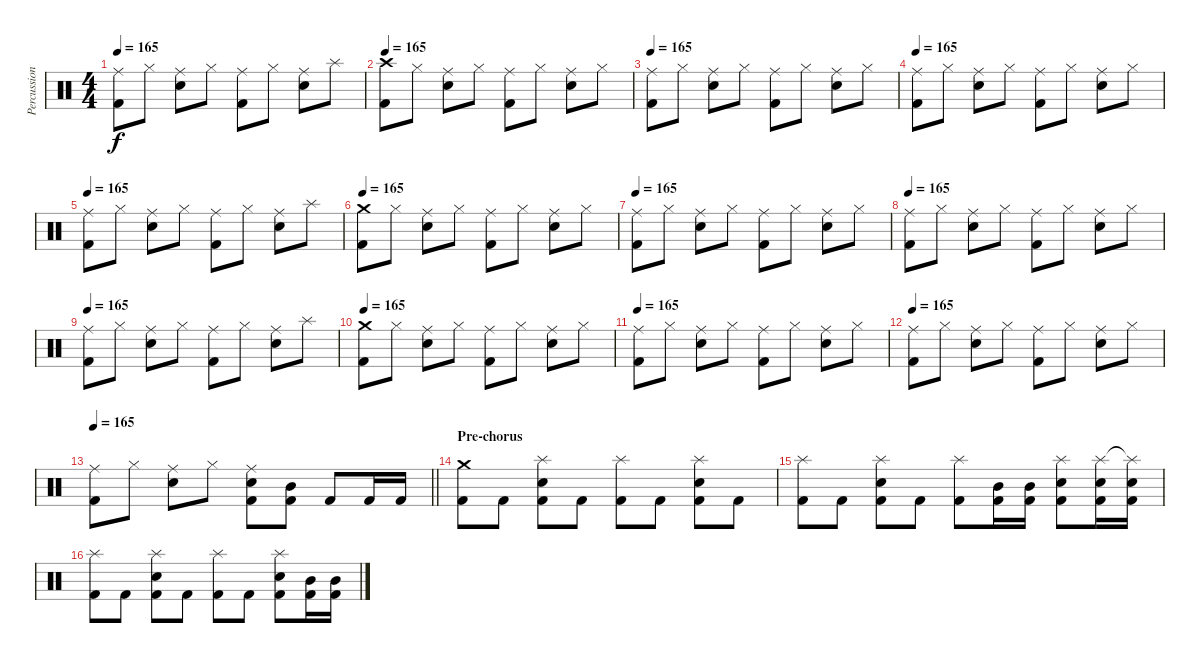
\track ("Percussion" "Percussion") {instrument percussion}
\staff {score}
\articulation defaults
\ts (4 4)
\tempo 165
\clef neutral
\ks c
("Ride (middle)" "Kick (hit) 2").8{dy f} "Hi-Hat (closed)".8 ("Ride (middle)" "Electric Snare (hit)").8 "Hi-Hat (closed)".8 ("Ride (middle)" "Kick (hit) 2").8 "Hi-Hat (closed)".8 ("Ride (middle)" "Electric Snare (hit)").8 "Splash (hit)".8 |
\tempo 165
("Crash high (hit)" "Kick (hit) 2").8 "Hi-Hat (closed)".8 ("Ride (middle)" "Electric Snare (hit)").8 "Hi-Hat (closed)".8 ("Ride (middle)" "Kick (hit) 2").8 "Hi-Hat (closed)".8 ("Ride (middle)" "Electric Snare (hit)").8 "Hi-Hat (closed)".8 |
\tempo 165
("Ride (middle)" "Kick (hit) 2").8 "Hi-Hat (closed)".8 ("Ride (middle)" "Electric Snare (hit)").8 "Hi-Hat (closed)".8 ("Ride (middle)" "Kick (hit) 2").8 "Hi-Hat (closed)".8 ("Ride (middle)" "Electric Snare (hit)").8 "Hi-Hat (closed)".8 |
\tempo 165
("Ride (middle)" "Kick (hit) 2").8 "Hi-Hat (closed)".8 ("Ride (middle)" "Electric Snare (hit)").8 "Hi-Hat (closed)".8 ("Ride (middle)" "Kick (hit) 2").8 "Hi-Hat (closed)".8 ("Ride (middle)" "Electric Snare (hit)").8 "Hi-Hat (closed)".8 |
\tempo 165
("Ride (middle)" "Kick (hit) 2").8 "Hi-Hat (closed)".8 ("Ride (middle)" "Electric Snare (hit)").8 "Hi-Hat (closed)".8 ("Ride (middle)" "Kick (hit) 2").8 "Hi-Hat (closed)".8 ("Ride (middle)" "Electric Snare (hit)").8 "Splash (hit)".8 |
\tempo 165
("Crash medium (hit)" "Kick (hit) 2").8 "Hi-Hat (closed)".8 ("Ride (middle)" "Electric Snare (hit)").8 "Hi-Hat (closed)".8 ("Ride (middle)" "Kick (hit) 2").8 "Hi-Hat (closed)".8 ("Ride (middle)" "Electric Snare (hit)").8 "Hi-Hat (closed)".8 |
\tempo 165
("Ride (middle)" "Kick (hit) 2").8 "Hi-Hat (closed)".8 ("Ride (middle)" "Electric Snare (hit)").8 "Hi-Hat (closed)".8 ("Ride (middle)" "Kick (hit) 2").8 "Hi-Hat (closed)".8 ("Ride (middle)" "Electric Snare (hit)").8 "Hi-Hat (closed)".8 |
\tempo 165
("Ride (middle)" "Kick (hit) 2").8 "Hi-Hat (closed)".8 ("Ride (middle)" "Electric Snare (hit)").8 "Hi-Hat (closed)".8 ("Ride (middle)" "Kick (hit) 2").8 "Hi-Hat (closed)".8 ("Ride (middle)" "Electric Snare (hit)").8 "Hi-Hat (closed)".8 |
\tempo 165
("Ride (middle)" "Kick (hit) 2").8 "Hi-Hat (closed)".8 ("Ride (middle)" "Electric Snare (hit)").8 "Hi-Hat (closed)".8 ("Ride (middle)" "Kick (hit) 2").8 "Hi-Hat (closed)".8 ("Ride (middle)" "Electric Snare (hit)").8 "Splash (hit)".8 |
\tempo 165
("Crash medium (hit)" "Kick (hit) 2").8 "Hi-Hat (closed)".8 ("Ride (middle)" "Electric Snare (hit)").8 "Hi-Hat (closed)".8 ("Ride (middle)" "Kick (hit) 2").8 "Hi-Hat (closed)".8 ("Ride (middle)" "Electric Snare (hit)").8 "Hi-Hat (closed)".8 |
\tempo 165
("Ride (middle)" "Kick (hit) 2").8 "Hi-Hat (closed)".8 ("Ride (middle)" "Electric Snare (hit)").8 "Hi-Hat (closed)".8 ("Ride (middle)" "Kick (hit) 2").8 "Hi-Hat (closed)".8 ("Ride (middle)" "Electric Snare (hit)").8 "Hi-Hat (closed)".8 |
\tempo 165
("Ride (middle)" "Kick (hit) 2").8 "Hi-Hat (closed)".8 ("Ride (middle)" "Electric Snare (hit)").8 "Hi-Hat (closed)".8 ("Ride (middle)" "Kick (hit) 2").8 "Hi-Hat (closed)".8 ("Ride (middle)" "Electric Snare (hit)").8 "Hi-Hat (closed)".8 |
\tempo 165
\barLineRight lightlight
("Ride (middle)" "Kick (hit) 2").8 "Hi-Hat (closed)".8 ("Ride (middle)" "Electric Snare (hit)").8 "Hi-Hat (closed)".8 ("Ride (middle)" "Electric Snare (hit)" "Kick (hit) 2").8 ("Mid Tom (hit)" "Kick (hit) 2").8 "Kick (hit) 2".8 "Kick (hit) 2".16 "Kick (hit) 2".16 |
\section ("" "Pre-chorus")
("Crash medium (hit)" "Kick (hit) 2").8 "Kick (hit) 2".8 ("Splash (hit)" "Electric Snare (hit)" "Kick (hit) 2").8 "Kick (hit) 2".8 ("Splash (hit)" "Kick (hit) 2").8 "Kick (hit) 2".8 ("Splash (hit)" "Electric Snare (hit)" "Kick (hit) 2").8 "Kick (hit) 2".8 |
("Splash (hit)" "Kick (hit) 2").8 "Kick (hit) 2".8 ("Splash (hit)" "Electric Snare (hit)" "Kick (hit) 2").8 "Kick (hit) 2".8 ("Splash (hit)" "Kick (hit) 2").8 ("Mid Tom (hit)" "Kick (hit) 2").16 ("Mid Tom (hit)" "Kick (hit) 2").16 ("Splash (hit)" "Electric Snare (hit)" "Kick (hit) 2").8 ("Splash (hit)" "Electric Snare (hit)" "Kick (hit) 2").16 ("Splash (hit)"{t} "Electric Snare (hit)" "Kick (hit) 2").16 |
("Splash (hit)" "Kick (hit) 2").8 "Kick (hit) 2".8 ("Splash (hit)" "Electric Snare (hit)" "Kick (hit) 2").8 "Kick (hit) 2".8 ("Splash (hit)" "Kick (hit) 2").8 "Kick (hit) 2".8 ("Splash (hit)" "Electric Snare (hit)" "Kick (hit) 2").8 ("Mid Tom (hit)" "Kick (hit) 2").16 ("Mid Tom (hit)" "Kick (hit) 2").16
